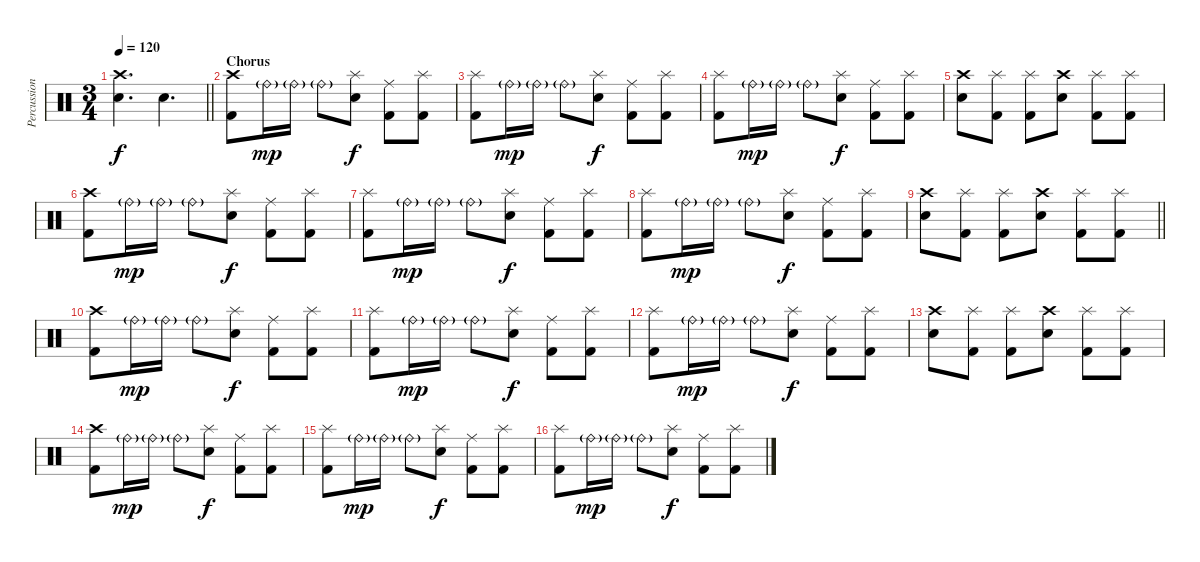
\track ("Percussion" "Percussion") {instrument percussion}
\staff {score}
\articulation defaults
\ts (3 4)
\tempo 120
\clef neutral
\barLineRight lightlight
\ks c
("Crash high (hit)" "Electric Snare (hit)").4{d dy f} "Electric Snare (hit)".4{d} |
\section ("" "Chorus")
("Crash high (hit)" "Kick (hit) 2").8 "Ride (bell)"{g}.16{dy mp} "Ride (bell)"{g}.16 "Ride (bell)"{g}.8 ("Splash (hit)" "Electric Snare (hit)").8{dy f} ("Ride (middle)" "Kick (hit) 2").8 ("Splash (hit)" "Kick (hit) 2").8 |
("Splash (hit)" "Kick (hit) 2").8 "Ride (bell)"{g}.16{dy mp} "Ride (bell)"{g}.16 "Ride (bell)"{g}.8 ("Splash (hit)" "Electric Snare (hit)").8{dy f} ("Ride (middle)" "Kick (hit) 2").8 ("Splash (hit)" "Kick (hit) 2").8 |
("Splash (hit)" "Kick (hit) 2").8 "Ride (bell)"{g}.16{dy mp} "Ride (bell)"{g}.16 "Ride (bell)"{g}.8 ("Splash (hit)" "Electric Snare (hit)").8{dy f} ("Ride (middle)" "Kick (hit) 2").8 ("Splash (hit)" "Kick (hit) 2").8 |
("Crash high (hit)" "Electric Snare (hit)").8 ("Splash (hit)" "Kick (hit) 2").8 ("Splash (hit)" "Kick (hit) 2").8 ("Crash high (hit)" "Electric Snare (hit)").8 ("Splash (hit)" "Kick (hit) 2").8 ("Splash (hit)" "Kick (hit) 2").8 |
("Crash high (hit)" "Kick (hit) 2").8 "Ride (bell)"{g}.16{dy mp} "Ride (bell)"{g}.16 "Ride (bell)"{g}.8 ("Splash (hit)" "Electric Snare (hit)").8{dy f} ("Ride (middle)" "Kick (hit) 2").8 ("Splash (hit)" "Kick (hit) 2").8 |
("Splash (hit)" "Kick (hit) 2").8 "Ride (bell)"{g}.16{dy mp} "Ride (bell)"{g}.16 "Ride (bell)"{g}.8 ("Splash (hit)" "Electric Snare (hit)").8{dy f} ("Ride (middle)" "Kick (hit) 2").8 ("Splash (hit)" "Kick (hit) 2").8 |
("Splash (hit)" "Kick (hit) 2").8 "Ride (bell)"{g}.16{dy mp} "Ride (bell)"{g}.16 "Ride (bell)"{g}.8 ("Splash (hit)" "Electric Snare (hit)").8{dy f} ("Ride (middle)" "Kick (hit) 2").8 ("Splash (hit)" "Kick (hit) 2").8 |
\barLineRight lightlight
("Crash high (hit)" "Electric Snare (hit)").8 ("Splash (hit)" "Kick (hit) 2").8 ("Splash (hit)" "Kick (hit) 2").8 ("Crash high (hit)" "Electric Snare (hit)").8 ("Splash (hit)" "Kick (hit) 2").8 ("Splash (hit)" "Kick (hit) 2").8 |
("Crash high (hit)" "Kick (hit) 2").8 "Ride (bell)"{g}.16{dy mp} "Ride (bell)"{g}.16 "Ride (bell)"{g}.8 ("Splash (hit)" "Electric Snare (hit)").8{dy f} ("Ride (middle)" "Kick (hit) 2").8 ("Splash (hit)" "Kick (hit) 2").8 |
("Splash (hit)" "Kick (hit) 2").8 "Ride (bell)"{g}.16{dy mp} "Ride (bell)"{g}.16 "Ride (bell)"{g}.8 ("Splash (hit)" "Electric Snare (hit)").8{dy f} ("Ride (middle)" "Kick (hit) 2").8 ("Splash (hit)" "Kick (hit) 2").8 |
("Splash (hit)" "Kick (hit) 2").8 "Ride (bell)"{g}.16{dy mp} "Ride (bell)"{g}.16 "Ride (bell)"{g}.8 ("Splash (hit)" "Electric Snare (hit)").8{dy f} ("Ride (middle)" "Kick (hit) 2").8 ("Splash (hit)" "Kick (hit) 2").8 |
("Crash high (hit)" "Electric Snare (hit)").8 ("Splash (hit)" "Kick (hit) 2").8 ("Splash (hit)" "Kick (hit) 2").8 ("Crash high (hit)" "Electric Snare (hit)").8 ("Splash (hit)" "Kick (hit) 2").8 ("Splash (hit)" "Kick (hit) 2").8 |
("Crash high (hit)" "Kick (hit) 2").8 "Ride (bell)"{g}.16{dy mp} "Ride (bell)"{g}.16 "Ride (bell)"{g}.8 ("Splash (hit)" "Electric Snare (hit)").8{dy f} ("Ride (middle)" "Kick (hit) 2").8 ("Splash (hit)" "Kick (hit) 2").8 |
("Splash (hit)" "Kick (hit) 2").8 "Ride (bell)"{g}.16{dy mp} "Ride (bell)"{g}.16 "Ride (bell)"{g}.8 ("Splash (hit)" "Electric Snare (hit)").8{dy f} ("Ride (middle)" "Kick (hit) 2").8 ("Splash (hit)" "Kick (hit) 2").8 |
("Splash (hit)" "Kick (hit) 2").8 "Ride (bell)"{g}.16{dy mp} "Ride (bell)"{g}.16 "Ride (bell)"{g}.8 ("Splash (hit)" "Electric Snare (hit)").8{dy f} ("Ride (middle)" "Kick (hit) 2").8 ("Splash (hit)" "Kick (hit) 2").8
